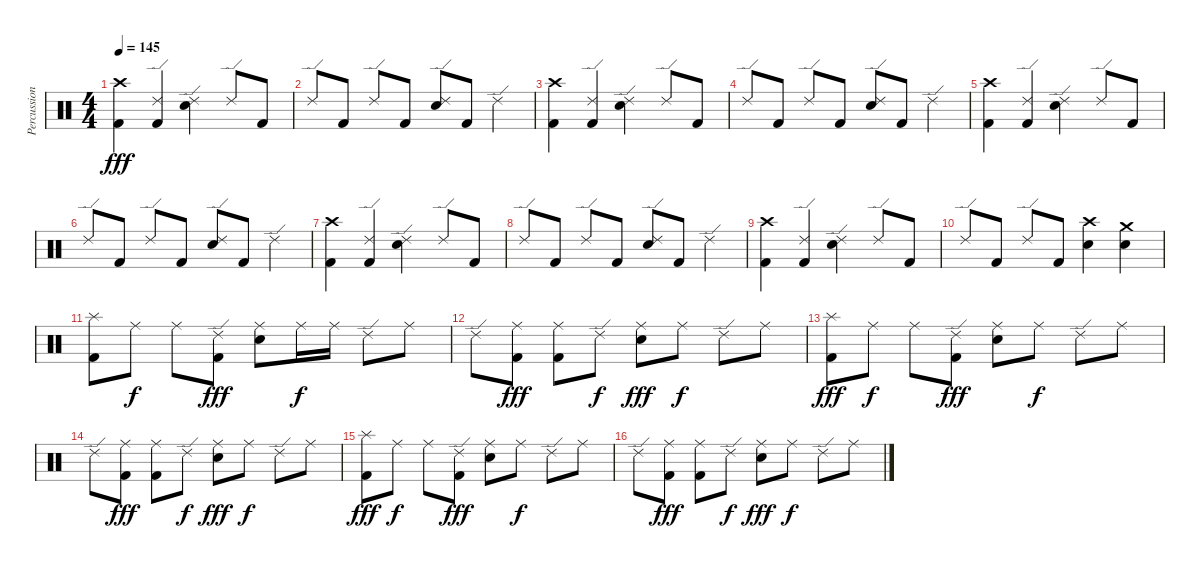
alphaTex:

\track ("Percussion" "Percussion") {instrument percussion}
\staff {score}
\articulation defaults
\ts (4 4)
\tempo 145
\clef neutral
\ks c
("Crash high (hit)" "Kick (hit) 2").4{dy fff} ("Ride (edge) 2" "Kick (hit) 2").4 ("Ride (edge) 2" "Electric Snare (hit)").4 "Ride (edge) 2".8 "Kick (hit) 2".8 |
"Ride (edge) 2".8 "Kick (hit) 2".8 "Ride (edge) 2".8 "Kick (hit) 2".8 ("Ride (edge) 2" "Electric Snare (hit)").8 "Kick (hit) 2".8 "Ride (edge) 2".4 |
("Crash high (hit)" "Kick (hit) 2").4 ("Ride (edge) 2" "Kick (hit) 2").4 ("Ride (edge) 2" "Electric Snare (hit)").4 "Ride (edge) 2".8 "Kick (hit) 2".8 |
"Ride (edge) 2".8 "Kick (hit) 2".8 "Ride (edge) 2".8 "Kick (hit) 2".8 ("Ride (edge) 2" "Electric Snare (hit)").8 "Kick (hit) 2".8 "Ride (edge) 2".4 |
("Crash high (hit)" "Kick (hit) 2").4 ("Ride (edge) 2" "Kick (hit) 2").4 ("Ride (edge) 2" "Electric Snare (hit)").4 "Ride (edge) 2".8 "Kick (hit) 2".8 |
"Ride (edge) 2".8 "Kick (hit) 2".8 "Ride (edge) 2".8 "Kick (hit) 2".8 ("Ride (edge) 2" "Electric Snare (hit)").8 "Kick (hit) 2".8 "Ride (edge) 2".4 |
("Crash high (hit)" "Kick (hit) 2").4 ("Ride (edge) 2" "Kick (hit) 2").4 ("Ride (edge) 2" "Electric Snare (hit)").4 "Ride (edge) 2".8 "Kick (hit) 2".8 |
"Ride (edge) 2".8 "Kick (hit) 2".8 "Ride (edge) 2".8 "Kick (hit) 2".8 ("Ride (edge) 2" "Electric Snare (hit)").8 "Kick (hit) 2".8 "Ride (edge) 2".4 |
("Crash high (hit)" "Kick (hit) 2").4 ("Ride (edge) 2" "Kick (hit) 2").4 ("Ride (edge) 2" "Electric Snare (hit)").4 "Ride (edge) 2".8 "Kick (hit) 2".8 |
"Ride (edge) 2".8 "Kick (hit) 2".8 "Ride (edge) 2".8 "Kick (hit) 2".8 ("Crash high (hit)" "Electric Snare (hit)").4 ("Crash medium (hit)" "Electric Snare (hit)").4 |
("Splash (hit)" "Kick (hit) 2").8 "Ride (middle)".8{dy f} "Ride (middle)".8 ("Ride (edge) 2" "Kick (hit) 2").8{dy fff} ("Ride (middle)" "Electric Snare (hit)").8 "Ride (middle)".16{dy f} "Ride (middle)".16 "Ride (edge) 2".8 "Ride (middle)".8 |
"Ride (edge) 2".8 ("Ride (middle)" "Kick (hit) 2").8{dy fff} ("Ride (middle)" "Kick (hit) 2").8 "Ride (edge) 2".8{dy f} ("Ride (middle)" "Electric Snare (hit)").8{dy fff} "Ride (middle)".8{dy f} "Ride (edge) 2".8 "Ride (middle)".8 |
("Splash (hit)" "Kick (hit) 2").8{dy fff} "Ride (middle)".8{dy f} "Ride (middle)".8 ("Ride (edge) 2" "Kick (hit) 2").8{dy fff} ("Ride (middle)" "Electric Snare (hit)").8 "Ride (middle)".8{dy f} "Ride (edge) 2".8 "Ride (middle)".8 |
"Ride (edge) 2".8 ("Ride (middle)" "Kick (hit) 2").8{dy fff} ("Ride (middle)" "Kick (hit) 2").8 "Ride (edge) 2".8{dy f} ("Ride (middle)" "Electric Snare (hit)").8{dy fff} "Ride (middle)".8{dy f} "Ride (edge) 2".8 "Ride (middle)".8 |
("Splash (hit)" "Kick (hit) 2").8{dy fff} "Ride (middle)".8{dy f} "Ride (middle)".8 ("Ride (edge) 2" "Kick (hit) 2").8{dy fff} ("Ride (middle)" "Electric Snare (hit)").8 "Ride (middle)".8{dy f} "Ride (edge) 2".8 "Ride (middle)".8 |
"Ride (edge) 2".8 ("Ride (middle)" "Kick (hit) 2").8{dy fff} ("Ride (middle)" "Kick (hit) 2").8 "Ride (edge) 2".8{dy f} ("Ride (middle)" "Electric Snare (hit)").8{dy fff} "Ride (middle)".8{dy f} "Ride (edge) 2".8 "Ride (middle)".8
